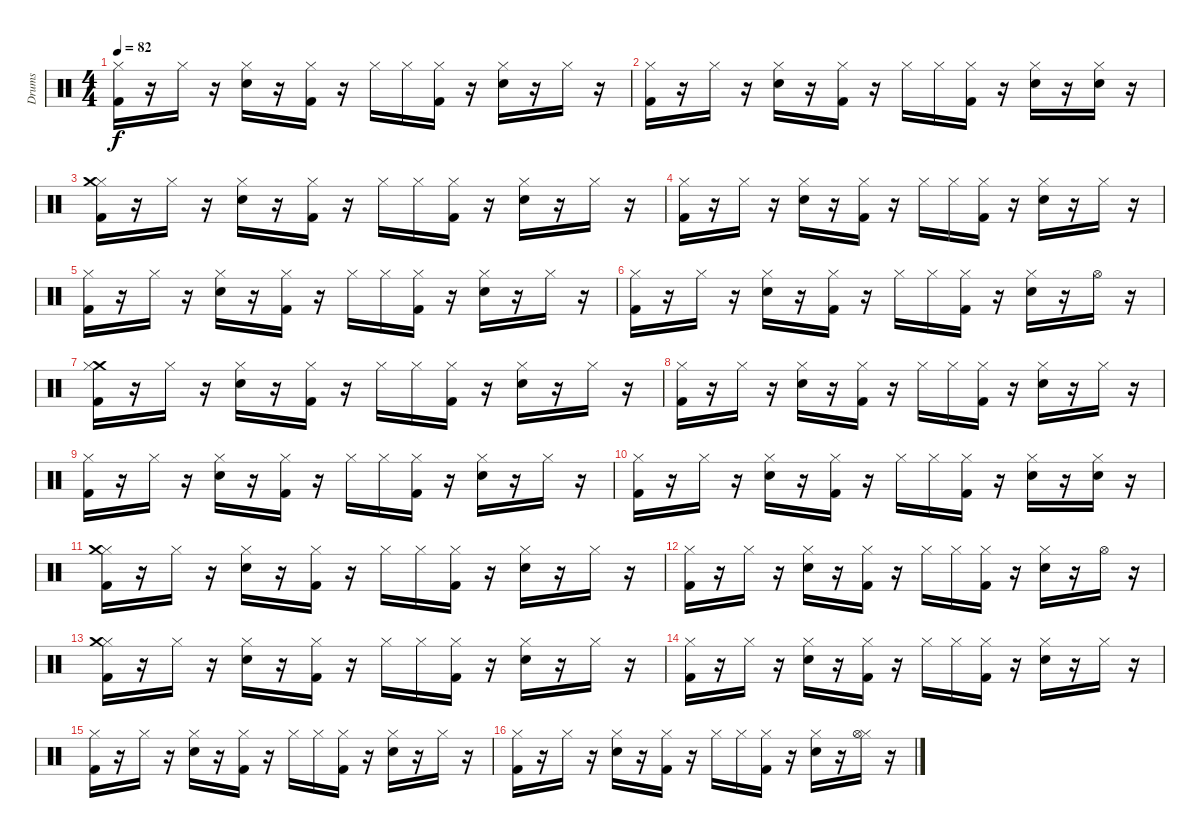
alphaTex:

\track ("Drums" "Drums") {instrument percussion}
\staff {score}
\articulation defaults
\ts (4 4)
\tempo 82
\clef neutral
\ks c
("Kick (hit) 2" "Hi-Hat (closed)").16{dy f} r.16 "Hi-Hat (closed)".16 r.16 ("Hi-Hat (closed)" "Electric Snare (hit)").16 r.16 ("Kick (hit) 2" "Hi-Hat (closed)").16 r.16 "Hi-Hat (closed)".16 "Hi-Hat (closed)".16 ("Hi-Hat (closed)" "Kick (hit) 2").16 r.16 ("Electric Snare (hit)" "Hi-Hat (closed)").16 r.16 "Hi-Hat (closed)".16 r.16 |
("Hi-Hat (closed)" "Kick (hit) 2").16 r.16 "Hi-Hat (closed)".16 r.16 ("Electric Snare (hit)" "Hi-Hat (closed)").16 r.16 ("Hi-Hat (closed)" "Kick (hit) 2").16 r.16 "Hi-Hat (closed)".16 "Hi-Hat (closed)".16 ("Kick (hit) 2" "Hi-Hat (closed)").16 r.16 ("Hi-Hat (closed)" "Electric Snare (hit)").16 r.16 ("Hi-Hat (closed)" "Electric Snare (hit)").16 r.16 |
("Kick (hit) 2" "Hi-Hat (closed)" "Crash medium (hit)").16 r.16 "Hi-Hat (closed)".16 r.16 ("Electric Snare (hit)" "Hi-Hat (closed)").16 r.16 ("Kick (hit) 2" "Hi-Hat (closed)").16 r.16 "Hi-Hat (closed)".16 "Hi-Hat (closed)".16 ("Hi-Hat (closed)" "Kick (hit) 2").16 r.16 ("Hi-Hat (closed)" "Electric Snare (hit)").16 r.16 "Hi-Hat (closed)".16 r.16 |
("Hi-Hat (closed)" "Kick (hit) 2").16 r.16 "Hi-Hat (closed)".16 r.16 ("Electric Snare (hit)" "Hi-Hat (closed)").16 r.16 ("Kick (hit) 2" "Hi-Hat (closed)").16 r.16 "Hi-Hat (closed)".16 "Hi-Hat (closed)".16 ("Kick (hit) 2" "Hi-Hat (closed)").16 r.16 ("Electric Snare (hit)" "Hi-Hat (closed)").16 r.16 "Hi-Hat (closed)".16 r.16 |
("Hi-Hat (closed)" "Kick (hit) 2").16 r.16 "Hi-Hat (closed)".16 r.16 ("Hi-Hat (closed)" "Electric Snare (hit)").16 r.16 ("Hi-Hat (closed)" "Kick (hit) 2").16 r.16 "Hi-Hat (closed)".16 "Hi-Hat (closed)".16 ("Kick (hit) 2" "Hi-Hat (closed)").16 r.16 ("Hi-Hat (closed)" "Electric Snare (hit)").16 r.16 "Hi-Hat (closed)".16 r.16 |
("Kick (hit) 2" "Hi-Hat (closed)").16 r.16 "Hi-Hat (closed)".16 r.16 ("Hi-Hat (closed)" "Electric Snare (hit)").16 r.16 ("Kick (hit) 2" "Hi-Hat (closed)").16 r.16 "Hi-Hat (closed)".16 "Hi-Hat (closed)".16 ("Hi-Hat (closed)" "Kick (hit) 2").16 r.16 ("Electric Snare (hit)" "Hi-Hat (closed)").16 r.16 "Hi-Hat (open)".16 r.16 |
("Crash medium (hit)" "Hi-Hat (closed)" "Kick (hit) 2").16 r.16 "Hi-Hat (closed)".16 r.16 ("Hi-Hat (closed)" "Electric Snare (hit)").16 r.16 ("Hi-Hat (closed)" "Kick (hit) 2").16 r.16 "Hi-Hat (closed)".16 "Hi-Hat (closed)".16 ("Kick (hit) 2" "Hi-Hat (closed)").16 r.16 ("Hi-Hat (closed)" "Electric Snare (hit)").16 r.16 "Hi-Hat (closed)".16 r.16 |
("Kick (hit) 2" "Hi-Hat (closed)").16 r.16 "Hi-Hat (closed)".16 r.16 ("Hi-Hat (closed)" "Electric Snare (hit)").16 r.16 ("Kick (hit) 2" "Hi-Hat (closed)").16 r.16 "Hi-Hat (closed)".16 "Hi-Hat (closed)".16 ("Hi-Hat (closed)" "Kick (hit) 2").16 r.16 ("Electric Snare (hit)" "Hi-Hat (closed)").16 r.16 "Hi-Hat (closed)".16 r.16 |
("Hi-Hat (closed)" "Kick (hit) 2").16 r.16 "Hi-Hat (closed)".16 r.16 ("Electric Snare (hit)" "Hi-Hat (closed)").16 r.16 ("Hi-Hat (closed)" "Kick (hit) 2").16 r.16 "Hi-Hat (closed)".16 "Hi-Hat (closed)".16 ("Kick (hit) 2" "Hi-Hat (closed)").16 r.16 ("Electric Snare (hit)" "Hi-Hat (closed)").16 r.16 "Hi-Hat (closed)".16 r.16 |
("Kick (hit) 2" "Hi-Hat (closed)").16 r.16 "Hi-Hat (closed)".16 r.16 ("Hi-Hat (closed)" "Electric Snare (hit)").16 r.16 ("Hi-Hat (closed)" "Kick (hit) 2").16 r.16 "Hi-Hat (closed)".16 "Hi-Hat (closed)".16 ("Hi-Hat (closed)" "Kick (hit) 2").16 r.16 ("Hi-Hat (closed)" "Electric Snare (hit)").16 r.16 ("Electric Snare (hit)" "Hi-Hat (closed)").16 r.16 |
("Kick (hit) 2" "Hi-Hat (closed)" "Crash medium (hit)").16 r.16 "Hi-Hat (closed)".16 r.16 ("Hi-Hat (closed)" "Electric Snare (hit)").16 r.16 ("Kick (hit) 2" "Hi-Hat (closed)").16 r.16 "Hi-Hat (closed)".16 "Hi-Hat (closed)".16 ("Hi-Hat (closed)" "Kick (hit) 2").16 r.16 ("Electric Snare (hit)" "Hi-Hat (closed)").16 r.16 "Hi-Hat (closed)".16 r.16 |
("Hi-Hat (closed)" "Kick (hit) 2").16 r.16 "Hi-Hat (closed)".16 r.16 ("Electric Snare (hit)" "Hi-Hat (closed)").16 r.16 ("Hi-Hat (closed)" "Kick (hit) 2").16 r.16 "Hi-Hat (closed)".16 "Hi-Hat (closed)".16 ("Kick (hit) 2" "Hi-Hat (closed)").16 r.16 ("Hi-Hat (closed)" "Electric Snare (hit)").16 r.16 "Hi-Hat (open)".16 r.16 |
("Kick (hit) 2" "Hi-Hat (closed)" "Crash medium (hit)").16 r.16 "Hi-Hat (closed)".16 r.16 ("Electric Snare (hit)" "Hi-Hat (closed)").16 r.16 ("Kick (hit) 2" "Hi-Hat (closed)").16 r.16 "Hi-Hat (closed)".16 "Hi-Hat (closed)".16 ("Hi-Hat (closed)" "Kick (hit) 2").16 r.16 ("Electric Snare (hit)" "Hi-Hat (closed)").16 r.16 "Hi-Hat (closed)".16 r.16 |
("Hi-Hat (closed)" "Kick (hit) 2").16 r.16 "Hi-Hat (closed)".16 r.16 ("Electric Snare (hit)" "Hi-Hat (closed)").16 r.16 ("Hi-Hat (closed)" "Kick (hit) 2").16 r.16 "Hi-Hat (closed)".16 "Hi-Hat (closed)".16 ("Kick (hit) 2" "Hi-Hat (closed)").16 r.16 ("Electric Snare (hit)" "Hi-Hat (closed)").16 r.16 "Hi-Hat (closed)".16 r.16 |
("Kick (hit) 2" "Hi-Hat (closed)").16 r.16 "Hi-Hat (closed)".16 r.16 ("Hi-Hat (closed)" "Electric Snare (hit)").16 r.16 ("Kick (hit) 2" "Hi-Hat (closed)").16 r.16 "Hi-Hat (closed)".16 "Hi-Hat (closed)".16 ("Hi-Hat (closed)" "Kick (hit) 2").16 r.16 ("Hi-Hat (closed)" "Electric Snare (hit)").16 r.16 "Hi-Hat (closed)".16 r.16 |
("Hi-Hat (closed)" "Kick (hit) 2").16 r.16 "Hi-Hat (closed)".16 r.16 ("Electric Snare (hit)" "Hi-Hat (closed)").16 r.16 ("Kick (hit) 2" "Hi-Hat (closed)").16 r.16 "Hi-Hat (closed)".16 "Hi-Hat (closed)".16 ("Kick (hit) 2" "Hi-Hat (closed)").16 r.16 ("Electric Snare (hit)" "Hi-Hat (closed)").16 r.16 ("Hi-Hat (closed)" "Hi-Hat (open)").16 r.16
